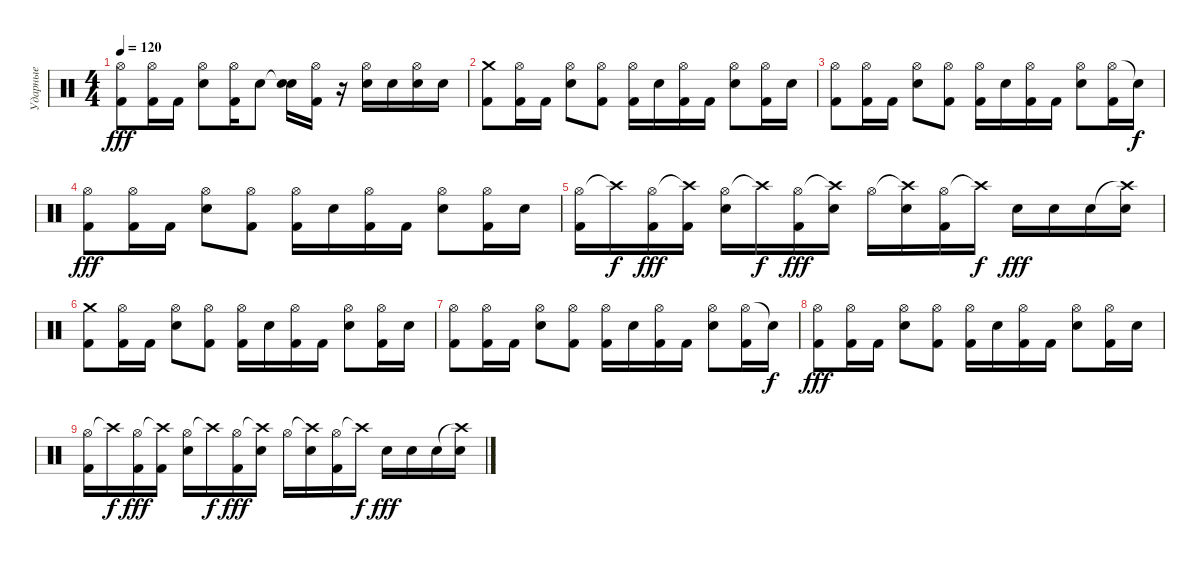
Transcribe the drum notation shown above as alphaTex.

\track ("Ударные" "Ударные") {instrument percussion}
\staff {score}
\articulation defaults
\ts (4 4)
\tempo 120
\clef neutral
\ks c
("Hi-Hat (open)" "Kick (hit) 2").8{dy fff} ("Hi-Hat (open)" "Kick (hit) 2").16 "Kick (hit) 2".16 ("Hi-Hat (open)" "Electric Snare (hit)").8 ("Hi-Hat (open)" "Kick (hit) 2").16 "Electric Snare (hit)".8 ("Snare (hit)"{t} "Electric Snare (hit)").16 ("Hi-Hat (open)" "Kick (hit) 2").16 r.16 ("Hi-Hat (open)" "Electric Snare (hit)").16 "Electric Snare (hit)".16 ("Hi-Hat (open)" "Electric Snare (hit)").16 "Electric Snare (hit)".16 |
("Crash medium (hit)" "Kick (hit) 2").8 ("Hi-Hat (open)" "Kick (hit) 2").16 "Kick (hit) 2".16 ("Hi-Hat (open)" "Electric Snare (hit)").8 ("Hi-Hat (open)" "Kick (hit) 2").8 ("Hi-Hat (open)" "Kick (hit) 2").16 "Electric Snare (hit)".16 ("Hi-Hat (open)" "Kick (hit) 2").16 "Kick (hit) 2".16 ("Hi-Hat (open)" "Electric Snare (hit)").8 ("Hi-Hat (open)" "Kick (hit) 2").16 "Electric Snare (hit)".16 |
("Hi-Hat (open)" "Kick (hit) 2").8 ("Hi-Hat (open)" "Kick (hit) 2").16 "Kick (hit) 2".16 ("Hi-Hat (open)" "Electric Snare (hit)").8 ("Hi-Hat (open)" "Kick (hit) 2").8 ("Hi-Hat (open)" "Kick (hit) 2").16 "Electric Snare (hit)".16 ("Hi-Hat (open)" "Kick (hit) 2").16 "Kick (hit) 2".16 ("Hi-Hat (open)" "Electric Snare (hit)").8 ("Hi-Hat (open)" "Kick (hit) 2").16 "Snare (hit)"{t}.16{dy f} |
("Hi-Hat (open)" "Kick (hit) 2").8{dy fff} ("Hi-Hat (open)" "Kick (hit) 2").16 "Kick (hit) 2".16 ("Hi-Hat (open)" "Electric Snare (hit)").8 ("Hi-Hat (open)" "Kick (hit) 2").8 ("Hi-Hat (open)" "Kick (hit) 2").16 "Electric Snare (hit)".16 ("Hi-Hat (open)" "Kick (hit) 2").16 "Kick (hit) 2".16 ("Hi-Hat (open)" "Electric Snare (hit)").8 ("Hi-Hat (open)" "Kick (hit) 2").16 "Electric Snare (hit)".16 |
("Hi-Hat (open)" "Kick (hit) 2").16 "Crash high (hit)"{t}.16{dy f} ("Hi-Hat (open)" "Kick (hit) 2").16{dy fff} ("Crash high (hit)"{t} "Kick (hit) 2").16 ("Hi-Hat (open)" "Electric Snare (hit)").16 "Crash high (hit)"{t}.16{dy f} ("Hi-Hat (open)" "Kick (hit) 2").16{dy fff} ("Crash high (hit)"{t} "Electric Snare (hit)").16 "Hi-Hat (open)".16 ("Crash high (hit)"{t} "Electric Snare (hit)").16 ("Hi-Hat (open)" "Kick (hit) 2").16 "Crash high (hit)"{t}.16{dy f} "Electric Snare (hit)".16{dy fff} "Electric Snare (hit)".16 "Electric Snare (hit)".16 ("Crash high (hit)"{t} "Electric Snare (hit)").16 |
("Crash medium (hit)" "Kick (hit) 2").8 ("Hi-Hat (open)" "Kick (hit) 2").16 "Kick (hit) 2".16 ("Hi-Hat (open)" "Electric Snare (hit)").8 ("Hi-Hat (open)" "Kick (hit) 2").8 ("Hi-Hat (open)" "Kick (hit) 2").16 "Electric Snare (hit)".16 ("Hi-Hat (open)" "Kick (hit) 2").16 "Kick (hit) 2".16 ("Hi-Hat (open)" "Electric Snare (hit)").8 ("Hi-Hat (open)" "Kick (hit) 2").16 "Electric Snare (hit)".16 |
("Hi-Hat (open)" "Kick (hit) 2").8 ("Hi-Hat (open)" "Kick (hit) 2").16 "Kick (hit) 2".16 ("Hi-Hat (open)" "Electric Snare (hit)").8 ("Hi-Hat (open)" "Kick (hit) 2").8 ("Hi-Hat (open)" "Kick (hit) 2").16 "Electric Snare (hit)".16 ("Hi-Hat (open)" "Kick (hit) 2").16 "Kick (hit) 2".16 ("Hi-Hat (open)" "Electric Snare (hit)").8 ("Hi-Hat (open)" "Kick (hit) 2").16 "Snare (hit)"{t}.16{dy f} |
("Hi-Hat (open)" "Kick (hit) 2").8{dy fff} ("Hi-Hat (open)" "Kick (hit) 2").16 "Kick (hit) 2".16 ("Hi-Hat (open)" "Electric Snare (hit)").8 ("Hi-Hat (open)" "Kick (hit) 2").8 ("Hi-Hat (open)" "Kick (hit) 2").16 "Electric Snare (hit)".16 ("Hi-Hat (open)" "Kick (hit) 2").16 "Kick (hit) 2".16 ("Hi-Hat (open)" "Electric Snare (hit)").8 ("Hi-Hat (open)" "Kick (hit) 2").16 "Electric Snare (hit)".16 |
("Hi-Hat (open)" "Kick (hit) 2").16 "Crash high (hit)"{t}.16{dy f} ("Hi-Hat (open)" "Kick (hit) 2").16{dy fff} ("Crash high (hit)"{t} "Kick (hit) 2").16 ("Hi-Hat (open)" "Electric Snare (hit)").16 "Crash high (hit)"{t}.16{dy f} ("Hi-Hat (open)" "Kick (hit) 2").16{dy fff} ("Crash high (hit)"{t} "Electric Snare (hit)").16 "Hi-Hat (open)".16 ("Crash high (hit)"{t} "Electric Snare (hit)").16 ("Hi-Hat (open)" "Kick (hit) 2").16 "Crash high (hit)"{t}.16{dy f} "Electric Snare (hit)".16{dy fff} "Electric Snare (hit)".16 "Electric Snare (hit)".16 ("Crash high (hit)"{t} "Electric Snare (hit)").16
